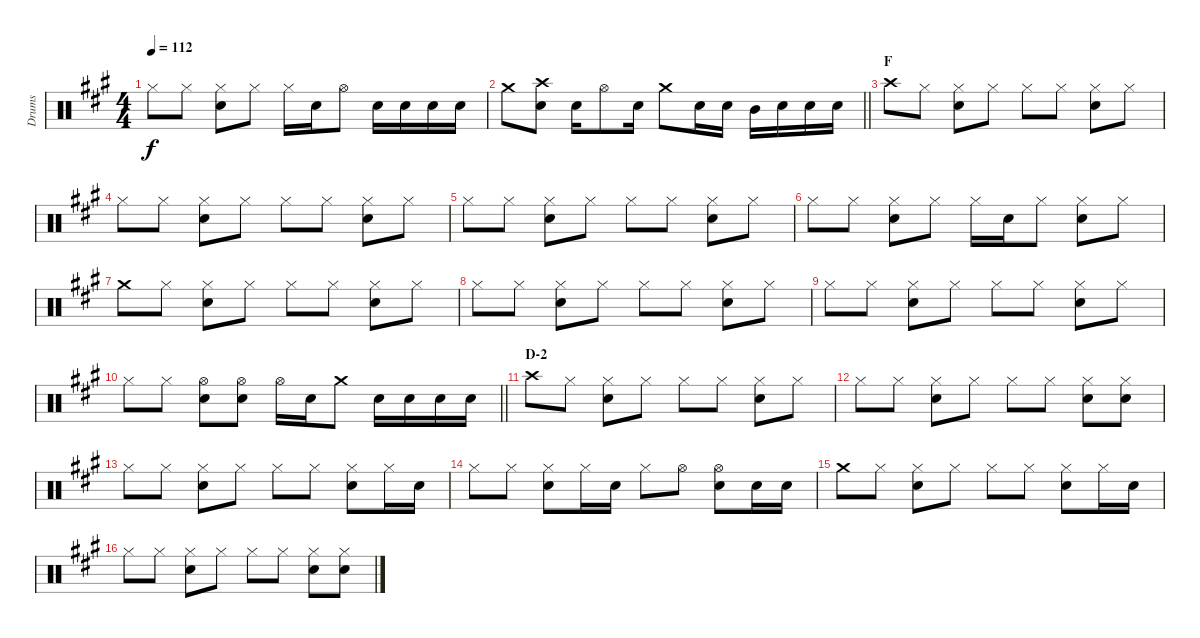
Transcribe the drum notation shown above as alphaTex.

\track ("Drums" "Drums") {instrument percussion}
\staff {score}
\articulation defaults
\ts (4 4)
\tempo 112
\clef neutral
\ks a "Hi-Hat (closed)".8{dy f} "Hi-Hat (closed)".8
("Hi-Hat (closed)" "Snare (hit) 2").8 "Hi-Hat (closed)".8 "Hi-Hat (closed)".16 "Snare (hit) 2".16 "Hi-Hat (open)".8 "Snare (hit) 2".16 "Snare (hit) 2".16 "Snare (hit) 2".16 "Snare (hit) 2".16 |
\barLineRight lightlight "Crash medium (hit)".8
("Crash high (hit)" "Snare (hit) 2").8 "Snare (hit) 2".16 "Hi-Hat (open)".8 "Snare (hit) 2".16 "Crash medium (hit)".8 "Snare (hit) 2".16 "Snare (hit) 2".16 "Mid Tom (hit)".16 "Snare (hit) 2".16 "Snare (hit) 2".16 "Snare (hit) 2".16 |
\section ("" "F")
"Crash high (hit)".8 "Hi-Hat (closed)".8 ("Hi-Hat (closed)" "Snare (hit) 2").8 "Hi-Hat (closed)".8 "Hi-Hat (closed)".8 "Hi-Hat (closed)".8 ("Hi-Hat (closed)" "Snare (hit) 2").8 "Hi-Hat (closed)".8 |
"Hi-Hat (closed)".8 "Hi-Hat (closed)".8 ("Hi-Hat (closed)" "Snare (hit) 2").8 "Hi-Hat (closed)".8 "Hi-Hat (closed)".8 "Hi-Hat (closed)".8 ("Hi-Hat (closed)" "Snare (hit) 2").8 "Hi-Hat (closed)".8 |
"Hi-Hat (closed)".8 "Hi-Hat (closed)".8 ("Hi-Hat (closed)" "Snare (hit) 2").8 "Hi-Hat (closed)".8 "Hi-Hat (closed)".8 "Hi-Hat (closed)".8 ("Hi-Hat (closed)" "Snare (hit) 2").8 "Hi-Hat (closed)".8 |
"Hi-Hat (closed)".8 "Hi-Hat (closed)".8 ("Hi-Hat (closed)" "Snare (hit) 2").8 "Hi-Hat (closed)".8 "Hi-Hat (closed)".16 "Snare (hit) 2".16 "Hi-Hat (closed)".8 ("Hi-Hat (closed)" "Snare (hit) 2").8 "Hi-Hat (closed)".8 |
"Crash medium (hit)".8 "Hi-Hat (closed)".8 ("Hi-Hat (closed)" "Snare (hit) 2").8 "Hi-Hat (closed)".8 "Hi-Hat (closed)".8 "Hi-Hat (closed)".8 ("Hi-Hat (closed)" "Snare (hit) 2").8 "Hi-Hat (closed)".8 |
"Hi-Hat (closed)".8 "Hi-Hat (closed)".8 ("Hi-Hat (closed)" "Snare (hit) 2").8 "Hi-Hat (closed)".8 "Hi-Hat (closed)".8 "Hi-Hat (closed)".8 ("Hi-Hat (closed)" "Snare (hit) 2").8 "Hi-Hat (closed)".8 |
"Hi-Hat (closed)".8 "Hi-Hat (closed)".8 ("Hi-Hat (closed)" "Snare (hit) 2").8 "Hi-Hat (closed)".8 "Hi-Hat (closed)".8 "Hi-Hat (closed)".8 ("Hi-Hat (closed)" "Snare (hit) 2").8 "Hi-Hat (closed)".8 |
\barLineRight lightlight "Hi-Hat (closed)".8 "Hi-Hat (closed)".8
("Hi-Hat (open)" "Snare (hit) 2").8 ("Hi-Hat (open)" "Snare (hit) 2").8 "Hi-Hat (open)".16 "Snare (hit) 2".16 "Crash medium (hit)".8 "Snare (hit) 2".16 "Snare (hit) 2".16 "Snare (hit) 2".16 "Snare (hit) 2".16 |
\section ("" "D-2")
"Crash high (hit)".8 "Hi-Hat (closed)".8 ("Hi-Hat (closed)" "Snare (hit) 2").8 "Hi-Hat (closed)".8 "Hi-Hat (closed)".8 "Hi-Hat (closed)".8 ("Hi-Hat (closed)" "Snare (hit) 2").8 "Hi-Hat (closed)".8 |
"Hi-Hat (closed)".8 "Hi-Hat (closed)".8 ("Hi-Hat (closed)" "Snare (hit) 2").8 "Hi-Hat (closed)".8 "Hi-Hat (closed)".8 "Hi-Hat (closed)".8 ("Hi-Hat (closed)" "Snare (hit) 2").8 ("Hi-Hat (closed)" "Snare (hit) 2").8 |
"Hi-Hat (closed)".8 "Hi-Hat (closed)".8 ("Hi-Hat (closed)" "Snare (hit) 2").8 "Hi-Hat (closed)".8 "Hi-Hat (closed)".8 "Hi-Hat (closed)".8 ("Hi-Hat (closed)" "Snare (hit) 2").8 "Hi-Hat (closed)".16 "Snare (hit) 2".16 |
"Hi-Hat (closed)".8 "Hi-Hat (closed)".8 ("Hi-Hat (closed)" "Snare (hit) 2").8 "Hi-Hat (closed)".16 "Snare (hit) 2".16 "Hi-Hat (closed)".8 "Hi-Hat (open)".8 ("Hi-Hat (open)" "Snare (hit) 2").8 "Snare (hit) 2".16 "Snare (hit) 2".16 |
"Crash medium (hit)".8 "Hi-Hat (closed)".8 ("Hi-Hat (closed)" "Snare (hit) 2").8 "Hi-Hat (closed)".8 "Hi-Hat (closed)".8 "Hi-Hat (closed)".8 ("Hi-Hat (closed)" "Snare (hit) 2").8 "Hi-Hat (closed)".16 "Snare (hit) 2".16 |
"Hi-Hat (closed)".8 "Hi-Hat (closed)".8 ("Hi-Hat (closed)" "Snare (hit) 2").8 "Hi-Hat (closed)".8 "Hi-Hat (closed)".8 "Hi-Hat (closed)".8 ("Hi-Hat (closed)" "Snare (hit) 2").8 ("Hi-Hat (closed)" "Snare (hit) 2").8
